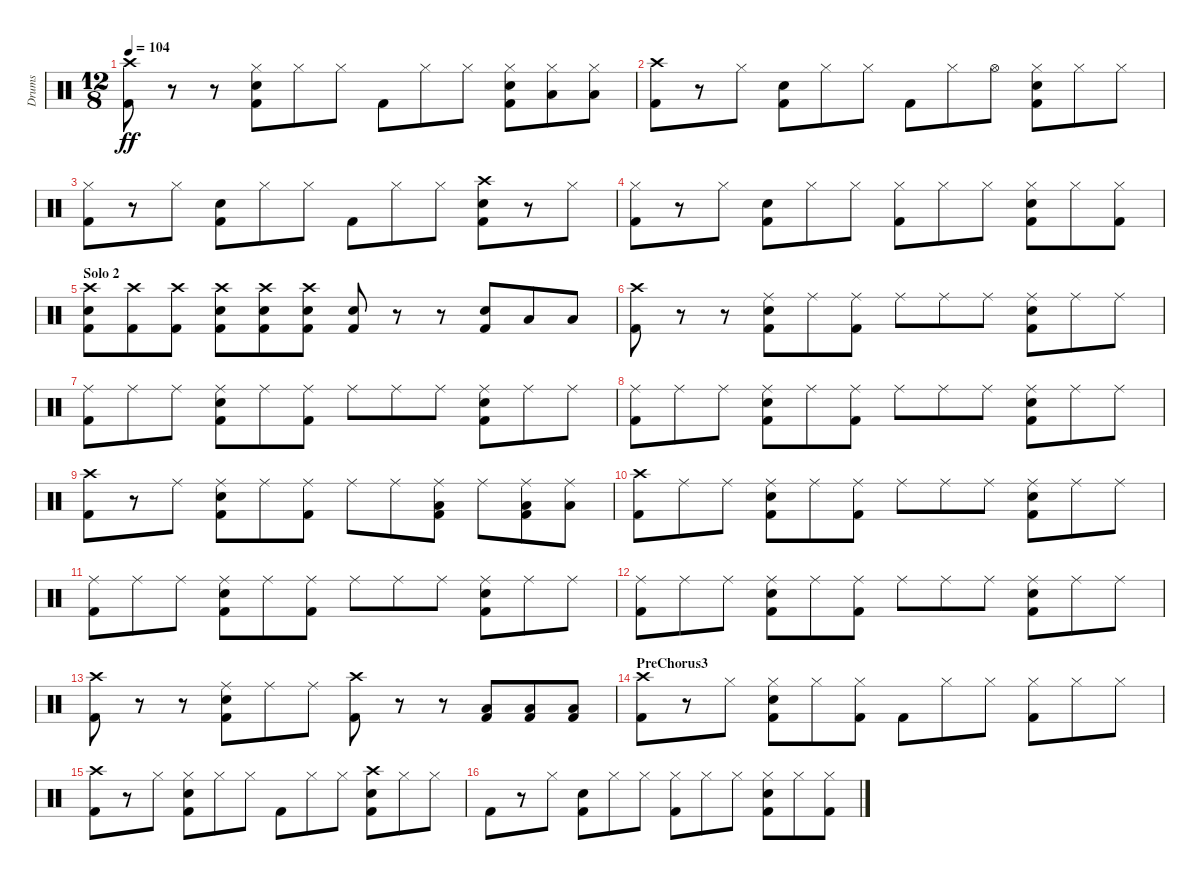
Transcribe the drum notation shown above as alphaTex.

\track ("Drums" "Drums") {instrument percussion}
\staff {score}
\articulation defaults
\ts (12 8)
\tempo 104
\clef neutral
\ks c
("Crash high (hit)" "Kick (hit) 2").8{dy ff} r.8 r.8 ("Hi-Hat (closed)" "Snare (hit) 2" "Kick (hit) 2").8 "Hi-Hat (closed)".8 "Hi-Hat (closed)".8 "Kick (hit) 2".8 "Hi-Hat (closed)".8 "Hi-Hat (closed)".8 ("Hi-Hat (closed)" "Snare (hit) 2" "Kick (hit) 2").8 ("Hi-Hat (closed)" "Low Tom (hit)").8 ("Hi-Hat (closed)" "Low Tom (hit)").8 |
("Crash high (hit)" "Kick (hit) 2").8 r.8 "Hi-Hat (closed)".8 ("Snare (hit) 2" "Kick (hit) 2").8 "Hi-Hat (closed)".8 "Hi-Hat (closed)".8 "Kick (hit) 2".8 "Hi-Hat (closed)".8 "Hi-Hat (open)".8 ("Hi-Hat (closed)" "Snare (hit) 2" "Kick (hit) 2").8 "Hi-Hat (closed)".8 "Hi-Hat (closed)".8 |
("Hi-Hat (closed)" "Kick (hit) 2").8 r.8 "Hi-Hat (closed)".8 ("Snare (hit) 2" "Kick (hit) 2").8 "Hi-Hat (closed)".8 "Hi-Hat (closed)".8 "Kick (hit) 2".8 "Hi-Hat (closed)".8 "Hi-Hat (closed)".8 ("Crash high (hit)" "Snare (hit) 2" "Kick (hit) 2").8 r.8 "Hi-Hat (closed)".8 |
("Hi-Hat (closed)" "Kick (hit) 2").8 r.8 "Hi-Hat (closed)".8 ("Snare (hit) 2" "Kick (hit) 2").8 "Hi-Hat (closed)".8 "Hi-Hat (closed)".8 ("Hi-Hat (closed)" "Kick (hit) 2").8 "Hi-Hat (closed)".8 "Hi-Hat (closed)".8 ("Hi-Hat (closed)" "Snare (hit) 2" "Kick (hit) 2").8 "Hi-Hat (closed)".8 ("Hi-Hat (closed)" "Kick (hit) 2").8 |
\section ("" "Solo 2")
("Crash high (hit)" "Snare (hit) 2" "Kick (hit) 2").8 ("Crash high (hit)" "Kick (hit) 2").8 ("Crash high (hit)" "Kick (hit) 2").8 ("Crash high (hit)" "Snare (hit) 2" "Kick (hit) 2").8 ("Crash high (hit)" "Snare (hit) 2" "Kick (hit) 2").8 ("Crash high (hit)" "Snare (hit) 2" "Kick (hit) 2").8 ("Snare (hit) 2" "Kick (hit) 2").8 r.8 r.8 ("Snare (hit) 2" "Kick (hit) 2").8 "Low Tom (hit)".8 "Low Tom (hit)".8 |
("Crash high (hit)" "Kick (hit) 2").8 r.8 r.8 ("Ride (middle)" "Snare (hit) 2" "Kick (hit) 2").8 "Ride (middle)".8 ("Ride (middle)" "Kick (hit) 2").8 "Ride (middle)".8 "Ride (middle)".8 "Ride (middle)".8 ("Ride (middle)" "Snare (hit) 2" "Kick (hit) 2").8 "Ride (middle)".8 "Ride (middle)".8 |
("Ride (middle)" "Kick (hit) 2").8 "Ride (middle)".8 "Ride (middle)".8 ("Ride (middle)" "Snare (hit) 2" "Kick (hit) 2").8 "Ride (middle)".8 ("Ride (middle)" "Kick (hit) 2").8 "Ride (middle)".8 "Ride (middle)".8 "Ride (middle)".8 ("Ride (middle)" "Snare (hit) 2" "Kick (hit) 2").8 "Ride (middle)".8 "Ride (middle)".8 |
("Ride (middle)" "Kick (hit) 2").8 "Ride (middle)".8 "Ride (middle)".8 ("Ride (middle)" "Snare (hit) 2" "Kick (hit) 2").8 "Ride (middle)".8 ("Ride (middle)" "Kick (hit) 2").8 "Ride (middle)".8 "Ride (middle)".8 "Ride (middle)".8 ("Ride (middle)" "Snare (hit) 2" "Kick (hit) 2").8 "Ride (middle)".8 "Ride (middle)".8 |
("Crash high (hit)" "Kick (hit) 2").8 r.8 "Ride (middle)".8 ("Ride (middle)" "Snare (hit) 2" "Kick (hit) 2").8 "Ride (middle)".8 ("Ride (middle)" "Kick (hit) 2").8 "Ride (middle)".8 "Ride (middle)".8 ("Ride (middle)" "Low Tom (hit)" "Kick (hit) 2").8 "Ride (middle)".8 ("Ride (middle)" "Low Tom (hit)" "Kick (hit) 2").8 ("Ride (middle)" "Low Tom (hit)").8 |
("Crash high (hit)" "Kick (hit) 2").8 "Ride (middle)".8 "Ride (middle)".8 ("Ride (middle)" "Snare (hit) 2" "Kick (hit) 2").8 "Ride (middle)".8 ("Ride (middle)" "Kick (hit) 2").8 "Ride (middle)".8 "Ride (middle)".8 "Ride (middle)".8 ("Ride (middle)" "Snare (hit) 2" "Kick (hit) 2").8 "Ride (middle)".8 "Ride (middle)".8 |
("Ride (middle)" "Kick (hit) 2").8 "Ride (middle)".8 "Ride (middle)".8 ("Ride (middle)" "Snare (hit) 2" "Kick (hit) 2").8 "Ride (middle)".8 ("Ride (middle)" "Kick (hit) 2").8 "Ride (middle)".8 "Ride (middle)".8 "Ride (middle)".8 ("Ride (middle)" "Snare (hit) 2" "Kick (hit) 2").8 "Ride (middle)".8 "Ride (middle)".8 |
("Ride (middle)" "Kick (hit) 2").8 "Ride (middle)".8 "Ride (middle)".8 ("Ride (middle)" "Snare (hit) 2" "Kick (hit) 2").8 "Ride (middle)".8 ("Ride (middle)" "Kick (hit) 2").8 "Ride (middle)".8 "Ride (middle)".8 "Ride (middle)".8 ("Ride (middle)" "Snare (hit) 2" "Kick (hit) 2").8 "Ride (middle)".8 "Ride (middle)".8 |
("Crash high (hit)" "Kick (hit) 2").8 r.8 r.8 ("Ride (middle)" "Snare (hit) 2" "Kick (hit) 2").8 "Ride (middle)".8 "Ride (middle)".8 ("Crash high (hit)" "Kick (hit) 2").8 r.8 r.8 ("Low Tom (hit)" "Kick (hit) 2").8 ("Low Tom (hit)" "Kick (hit) 2").8 ("Low Tom (hit)" "Kick (hit) 2").8 |
\section ("" "PreChorus3")
("Crash high (hit)" "Kick (hit) 2").8 r.8 "Hi-Hat (closed)".8 ("Hi-Hat (closed)" "Snare (hit) 2" "Kick (hit) 2").8 "Hi-Hat (closed)".8 ("Hi-Hat (closed)" "Kick (hit) 2").8 "Kick (hit) 2".8 "Hi-Hat (closed)".8 "Hi-Hat (closed)".8 ("Hi-Hat (closed)" "Kick (hit) 2").8 "Hi-Hat (closed)".8 "Hi-Hat (closed)".8 |
("Crash high (hit)" "Kick (hit) 2").8 r.8 "Hi-Hat (closed)".8 ("Hi-Hat (closed)" "Snare (hit) 2" "Kick (hit) 2").8 "Hi-Hat (closed)".8 "Hi-Hat (closed)".8 "Kick (hit) 2".8 "Hi-Hat (closed)".8 "Hi-Hat (closed)".8 ("Crash high (hit)" "Snare (hit) 2" "Kick (hit) 2").8 "Hi-Hat (closed)".8 "Hi-Hat (closed)".8 |
"Kick (hit) 2".8 r.8 "Hi-Hat (closed)".8 ("Snare (hit) 2" "Kick (hit) 2").8 "Hi-Hat (closed)".8 "Hi-Hat (closed)".8 ("Hi-Hat (closed)" "Kick (hit) 2").8 "Hi-Hat (closed)".8 "Hi-Hat (closed)".8 ("Hi-Hat (closed)" "Snare (hit) 2" "Kick (hit) 2").8 "Hi-Hat (closed)".8 ("Hi-Hat (closed)" "Kick (hit) 2").8
